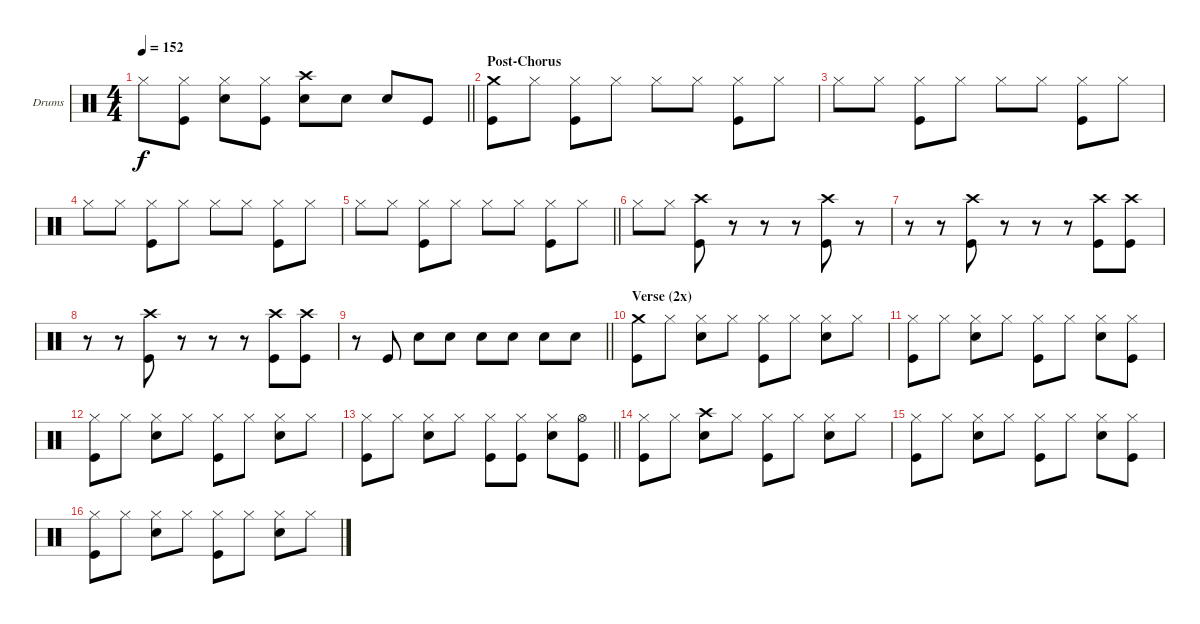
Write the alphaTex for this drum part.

\bracketExtendMode groupsimilarinstruments
\firstSystemTrackNameOrientation horizontal
\otherSystemsTrackNameOrientation horizontal
\track ("Drumkit" "Drums") {instrument percussion}
\staff {score}
\articulation defaults
\ts (4 4)
\tempo 152
\clef neutral
\barLineRight lightlight
\ks c "Hi-Hat (closed)".8{dy f}
("Hi-Hat (closed)" "Kick (hit)").8 ("Hi-Hat (closed)" "Snare (hit) 2").8 ("Hi-Hat (closed)" "Kick (hit)").8 ("Crash high (hit)" "Snare (hit) 2").8 "Snare (hit) 2".8 "Snare (hit) 2".8 "Kick (hit)".8 |
\section ("" "Post-Chorus")
("Crash medium (hit)" "Kick (hit)").8 "Hi-Hat (closed)".8 ("Hi-Hat (closed)" "Kick (hit)").8 "Hi-Hat (closed)".8 "Hi-Hat (closed)".8 "Hi-Hat (closed)".8 ("Hi-Hat (closed)" "Kick (hit)").8 "Hi-Hat (closed)".8 |
"Hi-Hat (closed)".8 "Hi-Hat (closed)".8 ("Hi-Hat (closed)" "Kick (hit)").8 "Hi-Hat (closed)".8 "Hi-Hat (closed)".8 "Hi-Hat (closed)".8 ("Hi-Hat (closed)" "Kick (hit)").8 "Hi-Hat (closed)".8 |
"Hi-Hat (closed)".8 "Hi-Hat (closed)".8 ("Hi-Hat (closed)" "Kick (hit)").8 "Hi-Hat (closed)".8 "Hi-Hat (closed)".8 "Hi-Hat (closed)".8 ("Hi-Hat (closed)" "Kick (hit)").8 "Hi-Hat (closed)".8 |
\barLineRight lightlight "Hi-Hat (closed)".8 "Hi-Hat (closed)".8
("Hi-Hat (closed)" "Kick (hit)").8 "Hi-Hat (closed)".8 "Hi-Hat (closed)".8 "Hi-Hat (closed)".8 ("Hi-Hat (closed)" "Kick (hit)").8 "Hi-Hat (closed)".8 |
"Hi-Hat (closed)".8 "Hi-Hat (closed)".8 ("Crash high (hit)" "Kick (hit)").8 r.8 r.8 r.8 ("Crash high (hit)" "Kick (hit)").8 r.8 |
r.8 r.8 ("Crash high (hit)" "Kick (hit)").8 r.8 r.8 r.8 ("Crash high (hit)" "Kick (hit)").8 ("Crash high (hit)" "Kick (hit)").8 |
r.8 r.8 ("Crash high (hit)" "Kick (hit)").8 r.8 r.8 r.8 ("Crash high (hit)" "Kick (hit)").8 ("Crash high (hit)" "Kick (hit)").8 |
\barLineRight lightlight
r.8 "Kick (hit)".8 "Snare (hit) 2".8 "Snare (hit) 2".8 "Snare (hit) 2".8 "Snare (hit) 2".8 "Snare (hit) 2".8 "Snare (hit) 2".8 |
\section ("" "Verse (2x)")
("Crash medium (hit)" "Kick (hit)").8 "Hi-Hat (closed)".8 ("Hi-Hat (closed)" "Snare (hit) 2").8 "Hi-Hat (closed)".8 ("Hi-Hat (closed)" "Kick (hit)").8 "Hi-Hat (closed)".8 ("Hi-Hat (closed)" "Snare (hit) 2").8 "Hi-Hat (closed)".8 |
("Hi-Hat (closed)" "Kick (hit)").8 "Hi-Hat (closed)".8 ("Hi-Hat (closed)" "Snare (hit) 2").8 "Hi-Hat (closed)".8 ("Hi-Hat (closed)" "Kick (hit)").8 "Hi-Hat (closed)".8 ("Hi-Hat (closed)" "Snare (hit) 2").8 ("Hi-Hat (closed)" "Kick (hit)").8 |
("Hi-Hat (closed)" "Kick (hit)").8 "Hi-Hat (closed)".8 ("Hi-Hat (closed)" "Snare (hit) 2").8 "Hi-Hat (closed)".8 ("Hi-Hat (closed)" "Kick (hit)").8 "Hi-Hat (closed)".8 ("Hi-Hat (closed)" "Snare (hit) 2").8 "Hi-Hat (closed)".8 |
\barLineRight lightlight
("Hi-Hat (closed)" "Kick (hit)").8 "Hi-Hat (closed)".8 ("Hi-Hat (closed)" "Snare (hit) 2").8 "Hi-Hat (closed)".8 ("Hi-Hat (closed)" "Kick (hit)").8 ("Hi-Hat (closed)" "Kick (hit)").8 ("Hi-Hat (closed)" "Snare (hit) 2").8 ("Hi-Hat (open)" "Kick (hit)").8 |
("Hi-Hat (closed)" "Kick (hit)").8 "Hi-Hat (closed)".8 ("Crash high (hit)" "Snare (hit) 2").8 "Hi-Hat (closed)".8 ("Hi-Hat (closed)" "Kick (hit)").8 "Hi-Hat (closed)".8 ("Hi-Hat (closed)" "Snare (hit) 2").8 "Hi-Hat (closed)".8 |
("Hi-Hat (closed)" "Kick (hit)").8 "Hi-Hat (closed)".8 ("Hi-Hat (closed)" "Snare (hit) 2").8 "Hi-Hat (closed)".8 ("Hi-Hat (closed)" "Kick (hit)").8 "Hi-Hat (closed)".8 ("Hi-Hat (closed)" "Snare (hit) 2").8 ("Hi-Hat (closed)" "Kick (hit)").8 |
("Hi-Hat (closed)" "Kick (hit)").8 "Hi-Hat (closed)".8 ("Hi-Hat (closed)" "Snare (hit) 2").8 "Hi-Hat (closed)".8 ("Hi-Hat (closed)" "Kick (hit)").8 "Hi-Hat (closed)".8 ("Hi-Hat (closed)" "Snare (hit) 2").8 "Hi-Hat (closed)".8
